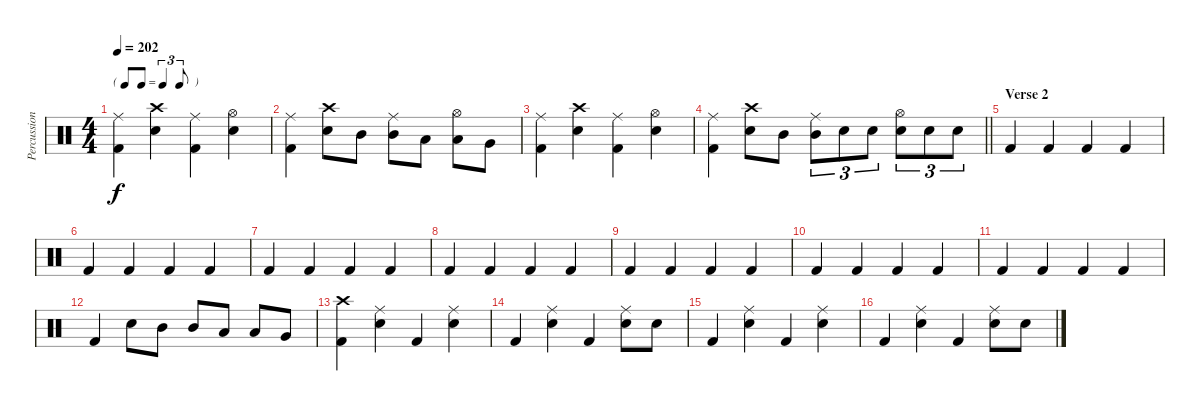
\track ("Percussion" "Percussion") {instrument percussion}
\staff {score}
\articulation defaults
\ts (4 4)
\tf triplet8th
\tempo 202
\clef neutral
\ks c
("Ride (middle)" "Kick (hit) 2").4{dy f} ("Crash high (hit)" "Electric Snare (hit)").4 ("Ride (middle)" "Kick (hit) 2").4 ("Hi-Hat (open)" "Electric Snare (hit)").4 |
("Ride (middle)" "Kick (hit) 2").4 ("Crash high (hit)" "Electric Snare (hit)").8 "Mid Tom (hit)".8 ("Ride (middle)" "Mid Tom (hit)").8 "Low Tom (hit)".8 ("Hi-Hat (open)" "Low Tom (hit)").8 "Very Low Tom (hit)".8 |
("Ride (middle)" "Kick (hit) 2").4 ("Crash high (hit)" "Electric Snare (hit)").4 ("Ride (middle)" "Kick (hit) 2").4 ("Hi-Hat (open)" "Electric Snare (hit)").4 |
\barLineRight lightlight
("Ride (middle)" "Kick (hit) 2").4 ("Crash high (hit)" "Electric Snare (hit)").8 "Mid Tom (hit)".8 ("Ride (middle)" "Mid Tom (hit)").8{tu (3 2)} "Electric Snare (hit)".8{tu (3 2)} "Electric Snare (hit)".8{tu (3 2)} ("Hi-Hat (open)" "Electric Snare (hit)").8{tu (3 2)} "Electric Snare (hit)".8{tu (3 2)} "Electric Snare (hit)".8{tu (3 2)} |
\section ("" "Verse 2")
"Kick (hit) 2".4 "Kick (hit) 2".4 "Kick (hit) 2".4 "Kick (hit) 2".4 |
"Kick (hit) 2".4 "Kick (hit) 2".4 "Kick (hit) 2".4 "Kick (hit) 2".4 |
"Kick (hit) 2".4 "Kick (hit) 2".4 "Kick (hit) 2".4 "Kick (hit) 2".4 |
"Kick (hit) 2".4 "Kick (hit) 2".4 "Kick (hit) 2".4 "Kick (hit) 2".4 |
"Kick (hit) 2".4 "Kick (hit) 2".4 "Kick (hit) 2".4 "Kick (hit) 2".4 |
"Kick (hit) 2".4 "Kick (hit) 2".4 "Kick (hit) 2".4 "Kick (hit) 2".4 |
"Kick (hit) 2".4 "Kick (hit) 2".4 "Kick (hit) 2".4 "Kick (hit) 2".4 |
"Kick (hit) 2".4 "Electric Snare (hit)".8 "Mid Tom (hit)".8 "Mid Tom (hit)".8 "Low Tom (hit)".8 "Low Tom (hit)".8 "Very Low Tom (hit)".8 |
("Crash high (hit)" "Kick (hit) 2").4 ("Ride (middle)" "Electric Snare (hit)").4 "Kick (hit) 2".4 ("Ride (middle)" "Electric Snare (hit)").4 |
"Kick (hit) 2".4 ("Ride (middle)" "Electric Snare (hit)").4 "Kick (hit) 2".4 ("Ride (middle)" "Electric Snare (hit)").8 "Electric Snare (hit)".8 |
"Kick (hit) 2".4 ("Ride (middle)" "Electric Snare (hit)").4 "Kick (hit) 2".4 ("Ride (middle)" "Electric Snare (hit)").4 |
"Kick (hit) 2".4 ("Ride (middle)" "Electric Snare (hit)").4 "Kick (hit) 2".4 ("Ride (middle)" "Electric Snare (hit)").8 "Electric Snare (hit)".8
